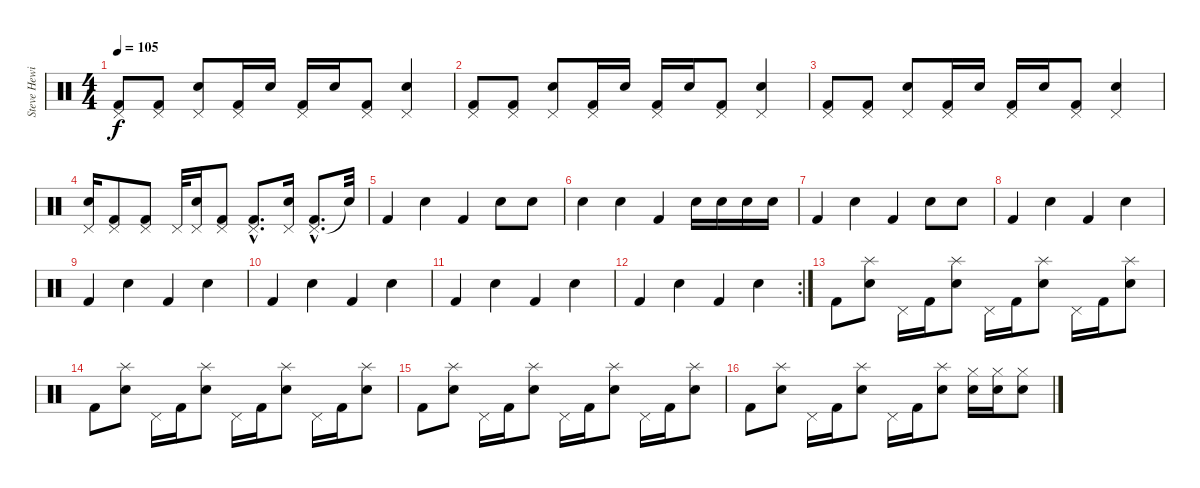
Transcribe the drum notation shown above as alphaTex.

\track ("Steve Hewitt" "Steve Hewi") {instrument percussion}
\staff {score}
\articulation defaults
\ts (4 4)
\tempo 105
\clef neutral
\ks c
("Pedal Hi-Hat (hit)" "Kick (hit) 2").8{dy f} ("Pedal Hi-Hat (hit)" "Kick (hit) 2").8 ("Pedal Hi-Hat (hit)" "Electric Snare (hit)").8 ("Pedal Hi-Hat (hit)" "Kick (hit) 2").16 "Electric Snare (hit)".16 ("Pedal Hi-Hat (hit)" "Kick (hit) 2").16 "Electric Snare (hit)".16 ("Pedal Hi-Hat (hit)" "Kick (hit) 2").8 ("Pedal Hi-Hat (hit)" "Electric Snare (hit)").4 |
("Pedal Hi-Hat (hit)" "Kick (hit) 2").8 ("Pedal Hi-Hat (hit)" "Kick (hit) 2").8 ("Pedal Hi-Hat (hit)" "Electric Snare (hit)").8 ("Pedal Hi-Hat (hit)" "Kick (hit) 2").16 "Electric Snare (hit)".16 ("Pedal Hi-Hat (hit)" "Kick (hit) 2").16 "Electric Snare (hit)".16 ("Pedal Hi-Hat (hit)" "Kick (hit) 2").8 ("Pedal Hi-Hat (hit)" "Electric Snare (hit)").4 |
("Pedal Hi-Hat (hit)" "Kick (hit) 2").8 ("Pedal Hi-Hat (hit)" "Kick (hit) 2").8 ("Pedal Hi-Hat (hit)" "Electric Snare (hit)").8 ("Pedal Hi-Hat (hit)" "Kick (hit) 2").16 "Electric Snare (hit)".16 ("Pedal Hi-Hat (hit)" "Kick (hit) 2").16 "Electric Snare (hit)".16 ("Pedal Hi-Hat (hit)" "Kick (hit) 2").8 ("Pedal Hi-Hat (hit)" "Electric Snare (hit)").4 |
("Pedal Hi-Hat (hit)" "Electric Snare (hit)").16 ("Pedal Hi-Hat (hit)" "Kick (hit) 2").8 ("Pedal Hi-Hat (hit)" "Kick (hit) 2").8 "Pedal Hi-Hat (hit)".32 ("Pedal Hi-Hat (hit)" "Electric Snare (hit)").16 ("Pedal Hi-Hat (hit)" "Kick (hit) 2").8 ("Pedal Hi-Hat (hit)"{hac} "Kick (hit) 2"{hac}).8{d} ("Pedal Hi-Hat (hit)" "Electric Snare (hit)").16 ("Pedal Hi-Hat (hit)"{hac} "Kick (hit) 2"{hac}).8{d} "Snare (hit)"{t}.32 |
"Kick (hit) 2".4 "Electric Snare (hit)".4 "Kick (hit) 2".4 "Electric Snare (hit)".8 "Electric Snare (hit)".8 |
"Electric Snare (hit)".4 "Electric Snare (hit)".4 "Kick (hit) 2".4 "Electric Snare (hit)".16 "Electric Snare (hit)".16 "Electric Snare (hit)".16 "Electric Snare (hit)".16 |
"Kick (hit) 2".4 "Electric Snare (hit)".4 "Kick (hit) 2".4 "Electric Snare (hit)".8 "Electric Snare (hit)".8 |
"Kick (hit) 2".4 "Electric Snare (hit)".4 "Kick (hit) 2".4 "Electric Snare (hit)".4 |
"Kick (hit) 2".4 "Electric Snare (hit)".4 "Kick (hit) 2".4 "Electric Snare (hit)".4 |
"Kick (hit) 2".4 "Electric Snare (hit)".4 "Kick (hit) 2".4 "Electric Snare (hit)".4 |
"Kick (hit) 2".4 "Electric Snare (hit)".4 "Kick (hit) 2".4 "Electric Snare (hit)".4 |
\rc 2 "Kick (hit) 2".4 "Electric Snare (hit)".4 "Kick (hit) 2".4 "Electric Snare (hit)".4
|
"Kick (hit) 2".8 ("Splash (hit)" "Electric Snare (hit)").8 "Pedal Hi-Hat (hit)".16 "Kick (hit) 2".16 ("Splash (hit)" "Electric Snare (hit)").8 "Pedal Hi-Hat (hit)".16 "Kick (hit) 2".16 ("Splash (hit)" "Electric Snare (hit)").8 "Pedal Hi-Hat (hit)".16 "Kick (hit) 2".16 ("Splash (hit)" "Electric Snare (hit)").8 |
"Kick (hit) 2".8 ("Splash (hit)" "Electric Snare (hit)").8 "Pedal Hi-Hat (hit)".16 "Kick (hit) 2".16 ("Splash (hit)" "Electric Snare (hit)").8 "Pedal Hi-Hat (hit)".16 "Kick (hit) 2".16 ("Splash (hit)" "Electric Snare (hit)").8 "Pedal Hi-Hat (hit)".16 "Kick (hit) 2".16 ("Splash (hit)" "Electric Snare (hit)").8 |
"Kick (hit) 2".8 ("Splash (hit)" "Electric Snare (hit)").8 "Pedal Hi-Hat (hit)".16 "Kick (hit) 2".16 ("Splash (hit)" "Electric Snare (hit)").8 "Pedal Hi-Hat (hit)".16 "Kick (hit) 2".16 ("Splash (hit)" "Electric Snare (hit)").8 "Pedal Hi-Hat (hit)".16 "Kick (hit) 2".16 ("Splash (hit)" "Electric Snare (hit)").8 |
"Kick (hit) 2".8 ("Splash (hit)" "Electric Snare (hit)").8 "Pedal Hi-Hat (hit)".16 "Kick (hit) 2".16 ("Splash (hit)" "Electric Snare (hit)").8 "Pedal Hi-Hat (hit)".16 "Kick (hit) 2".16 ("Splash (hit)" "Electric Snare (hit)").8 ("Hi-Hat (closed)" "Electric Snare (hit)").16 ("Hi-Hat (closed)" "Electric Snare (hit)").16 ("Hi-Hat (closed)" "Electric Snare (hit)").8
